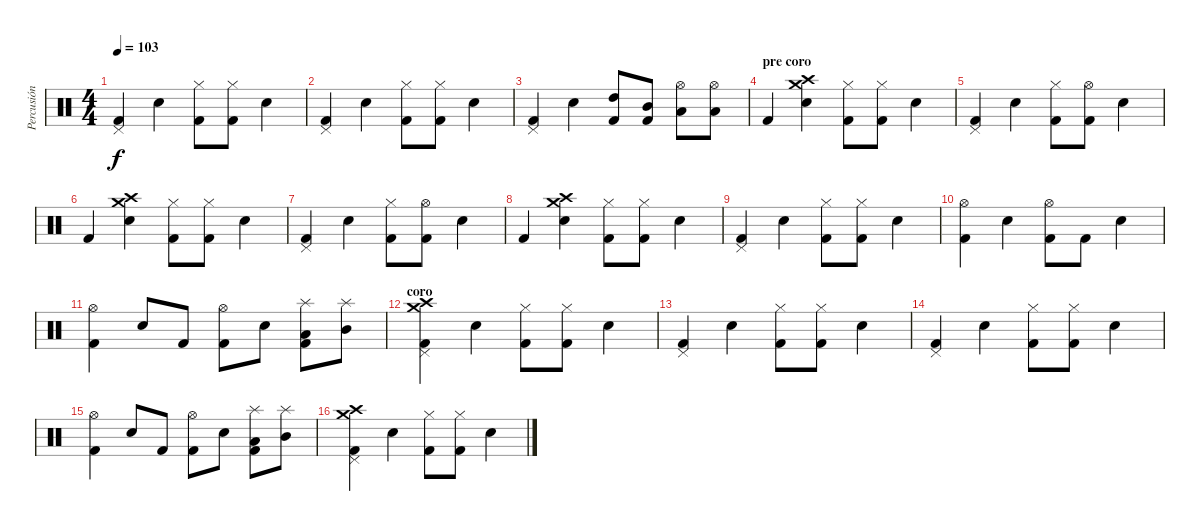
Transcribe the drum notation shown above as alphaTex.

\track ("Percusión" "Percusión") {instrument percussion}
\staff {score}
\articulation defaults
\ts (4 4)
\tempo 103
\clef neutral
\ks c
("Pedal Hi-Hat (hit)" "Kick (hit) 2").4{dy f} "Electric Snare (hit)".4 ("Hi-Hat (closed)" "Kick (hit) 2").8 ("Hi-Hat (closed)" "Kick (hit) 2").8 "Electric Snare (hit)".4 |
("Pedal Hi-Hat (hit)" "Kick (hit) 2").4 "Electric Snare (hit)".4 ("Hi-Hat (closed)" "Kick (hit) 2").8 ("Hi-Hat (closed)" "Kick (hit) 2").8 "Electric Snare (hit)".4 |
("Pedal Hi-Hat (hit)" "Kick (hit) 2").4 "Electric Snare (hit)".4 ("High Tom (hit)" "Kick (hit) 2").8 ("Mid Tom (hit)" "Kick (hit) 2").8 ("Low Tom (hit)" "Hi-Hat (open)").8 ("Low Tom (hit)" "Hi-Hat (open)").8 |
\section ("" "pre coro")
"Kick (hit) 2".4 ("Crash medium (hit)" "Crash high (hit)" "Electric Snare (hit)").4 ("Hi-Hat (closed)" "Kick (hit) 2").8 ("Hi-Hat (closed)" "Kick (hit) 2").8 "Electric Snare (hit)".4 |
("Pedal Hi-Hat (hit)" "Kick (hit) 2").4 "Electric Snare (hit)".4 ("Hi-Hat (closed)" "Kick (hit) 2").8 ("Hi-Hat (open)" "Kick (hit) 2").8 "Electric Snare (hit)".4 |
"Kick (hit) 2".4 ("Crash medium (hit)" "Crash high (hit)" "Electric Snare (hit)").4 ("Hi-Hat (closed)" "Kick (hit) 2").8 ("Hi-Hat (closed)" "Kick (hit) 2").8 "Electric Snare (hit)".4 |
("Pedal Hi-Hat (hit)" "Kick (hit) 2").4 "Electric Snare (hit)".4 ("Hi-Hat (closed)" "Kick (hit) 2").8 ("Hi-Hat (open)" "Kick (hit) 2").8 "Electric Snare (hit)".4 |
"Kick (hit) 2".4 ("Crash medium (hit)" "Crash high (hit)" "Electric Snare (hit)").4 ("Hi-Hat (closed)" "Kick (hit) 2").8 ("Hi-Hat (closed)" "Kick (hit) 2").8 "Electric Snare (hit)".4 |
("Pedal Hi-Hat (hit)" "Kick (hit) 2").4 "Electric Snare (hit)".4 ("Hi-Hat (closed)" "Kick (hit) 2").8 ("Hi-Hat (closed)" "Kick (hit) 2").8 "Electric Snare (hit)".4 |
("Hi-Hat (open)" "Kick (hit) 2").4 "Electric Snare (hit)".4 ("Hi-Hat (open)" "Kick (hit) 2").8 "Kick (hit) 2".8 "Electric Snare (hit)".4 |
("Hi-Hat (open)" "Kick (hit) 2").4 "Electric Snare (hit)".8 "Kick (hit) 2".8 ("Hi-Hat (open)" "Kick (hit) 2").8 "Electric Snare (hit)".8 ("Splash (hit)" "Low Tom (hit)" "Kick (hit) 2").8 ("Splash (hit)" "Mid Tom (hit)").8 |
\section ("" "coro")
("Crash medium (hit)" "Crash high (hit)" "Pedal Hi-Hat (hit)" "Kick (hit) 2").4 "Electric Snare (hit)".4 ("Hi-Hat (closed)" "Kick (hit) 2").8 ("Hi-Hat (closed)" "Kick (hit) 2").8 "Electric Snare (hit)".4 |
("Pedal Hi-Hat (hit)" "Kick (hit) 2").4 "Electric Snare (hit)".4 ("Hi-Hat (closed)" "Kick (hit) 2").8 ("Hi-Hat (closed)" "Kick (hit) 2").8 "Electric Snare (hit)".4 |
("Pedal Hi-Hat (hit)" "Kick (hit) 2").4 "Electric Snare (hit)".4 ("Hi-Hat (closed)" "Kick (hit) 2").8 ("Hi-Hat (closed)" "Kick (hit) 2").8 "Electric Snare (hit)".4 |
("Hi-Hat (open)" "Kick (hit) 2").4 "Electric Snare (hit)".8 "Kick (hit) 2".8 ("Hi-Hat (open)" "Kick (hit) 2").8 "Electric Snare (hit)".8 ("Splash (hit)" "Low Tom (hit)" "Kick (hit) 2").8 ("Splash (hit)" "Mid Tom (hit)").8 |
("Crash medium (hit)" "Crash high (hit)" "Pedal Hi-Hat (hit)" "Kick (hit) 2").4 "Electric Snare (hit)".4 ("Hi-Hat (closed)" "Kick (hit) 2").8 ("Hi-Hat (closed)" "Kick (hit) 2").8 "Electric Snare (hit)".4
